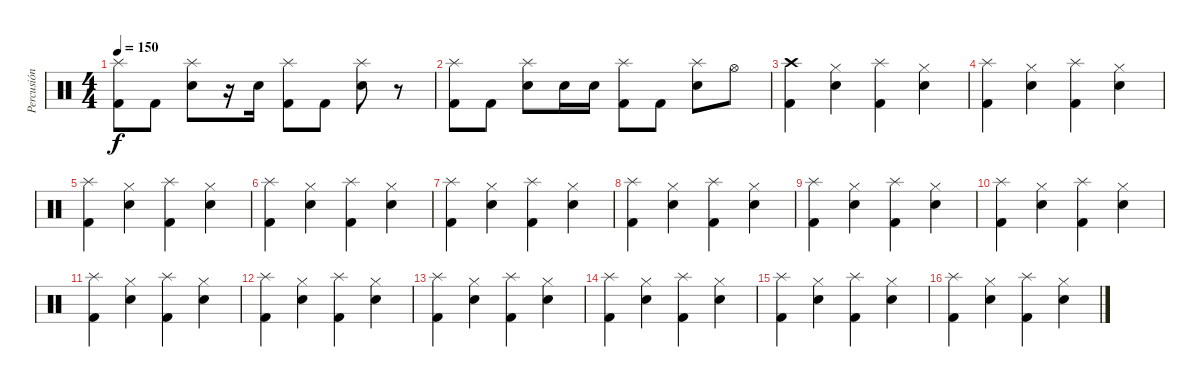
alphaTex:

\track ("Percusión" "Percusión") {instrument percussion}
\staff {score}
\articulation defaults
\ts (4 4)
\tempo 150
\clef neutral
\ks c
("Splash (hit)" "Kick (hit) 2").8{dy f} "Kick (hit) 2".8 ("Splash (hit)" "Snare (hit) 2").8 r.16 "Snare (hit) 2".16 ("Splash (hit)" "Kick (hit) 2").8 "Kick (hit) 2".8 ("Splash (hit)" "Snare (hit) 2").8 r.8 |
("Splash (hit)" "Kick (hit) 2").8 "Kick (hit) 2".8 ("Splash (hit)" "Snare (hit) 2").8 "Snare (hit) 2".16 "Snare (hit) 2".16 ("Splash (hit)" "Kick (hit) 2").8 "Kick (hit) 2".8 ("Splash (hit)" "Snare (hit) 2").8 "Hi-Hat (open)".8 |
("Crash high (hit)" "Kick (hit) 2").4 ("Hi-Hat (closed)" "Snare (hit) 2").4 ("Splash (hit)" "Kick (hit) 2").4 ("Hi-Hat (closed)" "Snare (hit) 2").4 |
("Splash (hit)" "Kick (hit) 2").4 ("Hi-Hat (closed)" "Snare (hit) 2").4 ("Splash (hit)" "Kick (hit) 2").4 ("Hi-Hat (closed)" "Snare (hit) 2").4 |
("Splash (hit)" "Kick (hit) 2").4 ("Hi-Hat (closed)" "Snare (hit) 2").4 ("Splash (hit)" "Kick (hit) 2").4 ("Hi-Hat (closed)" "Snare (hit) 2").4 |
("Splash (hit)" "Kick (hit) 2").4 ("Hi-Hat (closed)" "Snare (hit) 2").4 ("Splash (hit)" "Kick (hit) 2").4 ("Hi-Hat (closed)" "Snare (hit) 2").4 |
("Splash (hit)" "Kick (hit) 2").4 ("Hi-Hat (closed)" "Snare (hit) 2").4 ("Splash (hit)" "Kick (hit) 2").4 ("Hi-Hat (closed)" "Snare (hit) 2").4 |
("Splash (hit)" "Kick (hit) 2").4 ("Hi-Hat (closed)" "Snare (hit) 2").4 ("Splash (hit)" "Kick (hit) 2").4 ("Hi-Hat (closed)" "Snare (hit) 2").4 |
("Splash (hit)" "Kick (hit) 2").4 ("Hi-Hat (closed)" "Snare (hit) 2").4 ("Splash (hit)" "Kick (hit) 2").4 ("Hi-Hat (closed)" "Snare (hit) 2").4 |
("Splash (hit)" "Kick (hit) 2").4 ("Hi-Hat (closed)" "Snare (hit) 2").4 ("Splash (hit)" "Kick (hit) 2").4 ("Hi-Hat (closed)" "Snare (hit) 2").4 |
("Splash (hit)" "Kick (hit) 2").4 ("Hi-Hat (closed)" "Snare (hit) 2").4 ("Splash (hit)" "Kick (hit) 2").4 ("Hi-Hat (closed)" "Snare (hit) 2").4 |
("Splash (hit)" "Kick (hit) 2").4 ("Hi-Hat (closed)" "Snare (hit) 2").4 ("Splash (hit)" "Kick (hit) 2").4 ("Hi-Hat (closed)" "Snare (hit) 2").4 |
("Splash (hit)" "Kick (hit) 2").4 ("Hi-Hat (closed)" "Snare (hit) 2").4 ("Splash (hit)" "Kick (hit) 2").4 ("Hi-Hat (closed)" "Snare (hit) 2").4 |
("Splash (hit)" "Kick (hit) 2").4 ("Hi-Hat (closed)" "Snare (hit) 2").4 ("Splash (hit)" "Kick (hit) 2").4 ("Hi-Hat (closed)" "Snare (hit) 2").4 |
("Splash (hit)" "Kick (hit) 2").4 ("Hi-Hat (closed)" "Snare (hit) 2").4 ("Splash (hit)" "Kick (hit) 2").4 ("Hi-Hat (closed)" "Snare (hit) 2").4 |
("Splash (hit)" "Kick (hit) 2").4 ("Hi-Hat (closed)" "Snare (hit) 2").4 ("Splash (hit)" "Kick (hit) 2").4 ("Hi-Hat (closed)" "Snare (hit) 2").4
